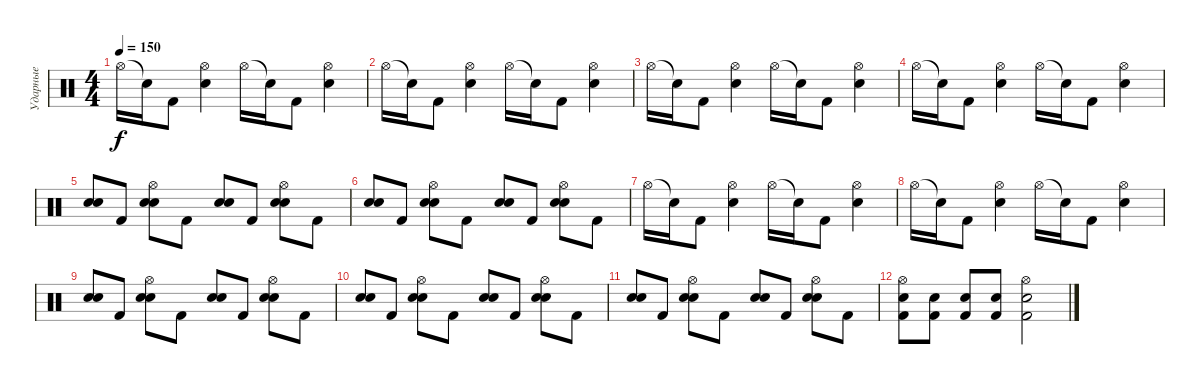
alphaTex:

\track ("Ударные" "Ударные") {instrument percussion bank 25}
\staff {score}
\articulation defaults
\ts (4 4)
\tempo 150
\clef neutral
\ks c "Hi-Hat (open)".16{dy f} "Snare (hit)"{t}.16 "Kick (hit) 2".8
("Snare (hit) 2" "Hi-Hat (open)").4 "Hi-Hat (open)".16 "Snare (hit)"{t}.16 "Kick (hit) 2".8 ("Snare (hit) 2" "Hi-Hat (open)").4 |
"Hi-Hat (open)".16 "Snare (hit)"{t}.16 "Kick (hit) 2".8 ("Snare (hit) 2" "Hi-Hat (open)").4 "Hi-Hat (open)".16 "Snare (hit)"{t}.16 "Kick (hit) 2".8 ("Snare (hit) 2" "Hi-Hat (open)").4 |
"Hi-Hat (open)".16 "Snare (hit)"{t}.16 "Kick (hit) 2".8 ("Snare (hit) 2" "Hi-Hat (open)").4 "Hi-Hat (open)".16 "Snare (hit)"{t}.16 "Kick (hit) 2".8 ("Snare (hit) 2" "Hi-Hat (open)").4 |
"Hi-Hat (open)".16 "Snare (hit)"{t}.16 "Kick (hit) 2".8 ("Snare (hit) 2" "Hi-Hat (open)").4 "Hi-Hat (open)".16 "Snare (hit)"{t}.16 "Kick (hit) 2".8 ("Snare (hit) 2" "Hi-Hat (open)").4 |
("Snare (hit) 2" "Electric Snare (hit)").8 "Kick (hit) 2".8 ("Snare (hit) 2" "Electric Snare (hit)" "Hi-Hat (open)").8 "Kick (hit) 2".8 ("Snare (hit) 2" "Electric Snare (hit)").8 "Kick (hit) 2".8 ("Snare (hit) 2" "Electric Snare (hit)" "Hi-Hat (open)").8 "Kick (hit) 2".8 |
("Snare (hit) 2" "Electric Snare (hit)").8 "Kick (hit) 2".8 ("Snare (hit) 2" "Electric Snare (hit)" "Hi-Hat (open)").8 "Kick (hit) 2".8 ("Snare (hit) 2" "Electric Snare (hit)").8 "Kick (hit) 2".8 ("Snare (hit) 2" "Electric Snare (hit)" "Hi-Hat (open)").8 "Kick (hit) 2".8 |
"Hi-Hat (open)".16 "Snare (hit)"{t}.16 "Kick (hit) 2".8 ("Snare (hit) 2" "Hi-Hat (open)").4 "Hi-Hat (open)".16 "Snare (hit)"{t}.16 "Kick (hit) 2".8 ("Snare (hit) 2" "Hi-Hat (open)").4 |
"Hi-Hat (open)".16 "Snare (hit)"{t}.16 "Kick (hit) 2".8 ("Snare (hit) 2" "Hi-Hat (open)").4 "Hi-Hat (open)".16 "Snare (hit)"{t}.16 "Kick (hit) 2".8 ("Snare (hit) 2" "Hi-Hat (open)").4 |
("Snare (hit) 2" "Electric Snare (hit)").8 "Kick (hit) 2".8 ("Snare (hit) 2" "Electric Snare (hit)" "Hi-Hat (open)").8 "Kick (hit) 2".8 ("Snare (hit) 2" "Electric Snare (hit)").8 "Kick (hit) 2".8 ("Snare (hit) 2" "Electric Snare (hit)" "Hi-Hat (open)").8 "Kick (hit) 2".8 |
("Snare (hit) 2" "Electric Snare (hit)").8 "Kick (hit) 2".8 ("Snare (hit) 2" "Electric Snare (hit)" "Hi-Hat (open)").8 "Kick (hit) 2".8 ("Snare (hit) 2" "Electric Snare (hit)").8 "Kick (hit) 2".8 ("Snare (hit) 2" "Electric Snare (hit)" "Hi-Hat (open)").8 "Kick (hit) 2".8 |
("Snare (hit) 2" "Electric Snare (hit)").8 "Kick (hit) 2".8 ("Snare (hit) 2" "Electric Snare (hit)" "Hi-Hat (open)").8 "Kick (hit) 2".8 ("Snare (hit) 2" "Electric Snare (hit)").8 "Kick (hit) 2".8 ("Snare (hit) 2" "Electric Snare (hit)" "Hi-Hat (open)").8 "Kick (hit) 2".8 |
("Kick (hit) 2" "Electric Snare (hit)" "Hi-Hat (open)").8 ("Kick (hit) 2" "Snare (hit) 2").8 ("Kick (hit) 2" "Snare (hit) 2").8 ("Kick (hit) 2" "Snare (hit) 2").8 ("Kick (hit) 2" "Electric Snare (hit)" "Hi-Hat (open)").2
